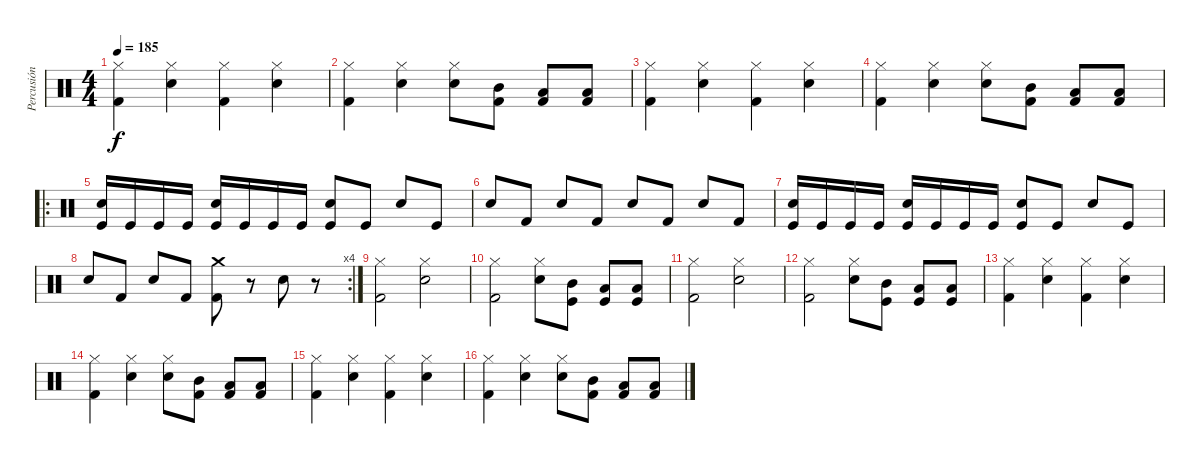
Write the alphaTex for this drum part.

\track ("Percusión" "Percusión") {instrument percussion}
\staff {score}
\articulation defaults
\ts (4 4)
\tempo 185
\clef neutral
\ks c
("Hi-Hat (closed)" "Kick (hit) 2").4{dy f} ("Hi-Hat (closed)" "Snare (hit) 2").4 ("Hi-Hat (closed)" "Kick (hit) 2").4 ("Hi-Hat (closed)" "Snare (hit) 2").4 |
("Hi-Hat (closed)" "Kick (hit) 2").4 ("Hi-Hat (closed)" "Snare (hit) 2").4 ("Hi-Hat (closed)" "Snare (hit) 2").8 ("Mid Tom (hit)" "Kick (hit) 2").8 ("Low Tom (hit)" "Kick (hit) 2").8 ("Low Tom (hit)" "Kick (hit) 2").8 |
("Hi-Hat (closed)" "Kick (hit) 2").4 ("Hi-Hat (closed)" "Snare (hit) 2").4 ("Hi-Hat (closed)" "Kick (hit) 2").4 ("Hi-Hat (closed)" "Snare (hit) 2").4 |
("Hi-Hat (closed)" "Kick (hit) 2").4 ("Hi-Hat (closed)" "Snare (hit) 2").4 ("Hi-Hat (closed)" "Snare (hit) 2").8 ("Mid Tom (hit)" "Kick (hit) 2").8 ("Low Tom (hit)" "Kick (hit) 2").8 ("Low Tom (hit)" "Kick (hit) 2").8 |
\ro
("Snare (hit) 2" "Kick (hit)").16 "Kick (hit)".16 "Kick (hit)".16 "Kick (hit)".16 ("Snare (hit) 2" "Kick (hit)").16 "Kick (hit)".16 "Kick (hit)".16 "Kick (hit)".16 ("Snare (hit) 2" "Kick (hit)").8 "Kick (hit)".8 "Snare (hit) 2".8 "Kick (hit)".8 |
"Snare (hit) 2".8 "Kick (hit) 2".8 "Snare (hit) 2".8 "Kick (hit) 2".8 "Snare (hit) 2".8 "Kick (hit) 2".8 "Snare (hit) 2".8 "Kick (hit) 2".8 |
("Snare (hit) 2" "Kick (hit)").16 "Kick (hit)".16 "Kick (hit)".16 "Kick (hit)".16 ("Snare (hit) 2" "Kick (hit)").16 "Kick (hit)".16 "Kick (hit)".16 "Kick (hit)".16 ("Snare (hit) 2" "Kick (hit)").8 "Kick (hit)".8 "Snare (hit) 2".8 "Kick (hit)".8 |
\rc 4 "Snare (hit) 2".8 "Kick (hit) 2".8 "Snare (hit) 2".8 "Kick (hit) 2".8
("Crash medium (hit)" "Kick (hit) 2").8 r.8 "Snare (hit) 2".8 r.8 |
("Hi-Hat (closed)" "Kick (hit) 2").2 ("Hi-Hat (closed)" "Snare (hit) 2").2 |
("Hi-Hat (closed)" "Kick (hit) 2").2 ("Hi-Hat (closed)" "Snare (hit) 2").8 ("Kick (hit)" "Mid Tom (hit)").8 ("Kick (hit)" "Low Tom (hit)").8 ("Kick (hit)" "Low Tom (hit)").8 |
("Hi-Hat (closed)" "Kick (hit) 2").2 ("Hi-Hat (closed)" "Snare (hit) 2").2 |
("Hi-Hat (closed)" "Kick (hit) 2").2 ("Hi-Hat (closed)" "Snare (hit) 2").8 ("Kick (hit)" "Mid Tom (hit)").8 ("Kick (hit)" "Low Tom (hit)").8 ("Kick (hit)" "Low Tom (hit)").8 |
("Hi-Hat (closed)" "Kick (hit) 2").4 ("Hi-Hat (closed)" "Snare (hit) 2").4 ("Hi-Hat (closed)" "Kick (hit) 2").4 ("Hi-Hat (closed)" "Snare (hit) 2").4 |
("Hi-Hat (closed)" "Kick (hit) 2").4 ("Hi-Hat (closed)" "Snare (hit) 2").4 ("Hi-Hat (closed)" "Snare (hit) 2").8 ("Mid Tom (hit)" "Kick (hit) 2").8 ("Low Tom (hit)" "Kick (hit) 2").8 ("Low Tom (hit)" "Kick (hit) 2").8 |
("Hi-Hat (closed)" "Kick (hit) 2").4 ("Hi-Hat (closed)" "Snare (hit) 2").4 ("Hi-Hat (closed)" "Kick (hit) 2").4 ("Hi-Hat (closed)" "Snare (hit) 2").4 |
("Hi-Hat (closed)" "Kick (hit) 2").4 ("Hi-Hat (closed)" "Snare (hit) 2").4 ("Hi-Hat (closed)" "Snare (hit) 2").8 ("Mid Tom (hit)" "Kick (hit) 2").8 ("Low Tom (hit)" "Kick (hit) 2").8 ("Low Tom (hit)" "Kick (hit) 2").8
